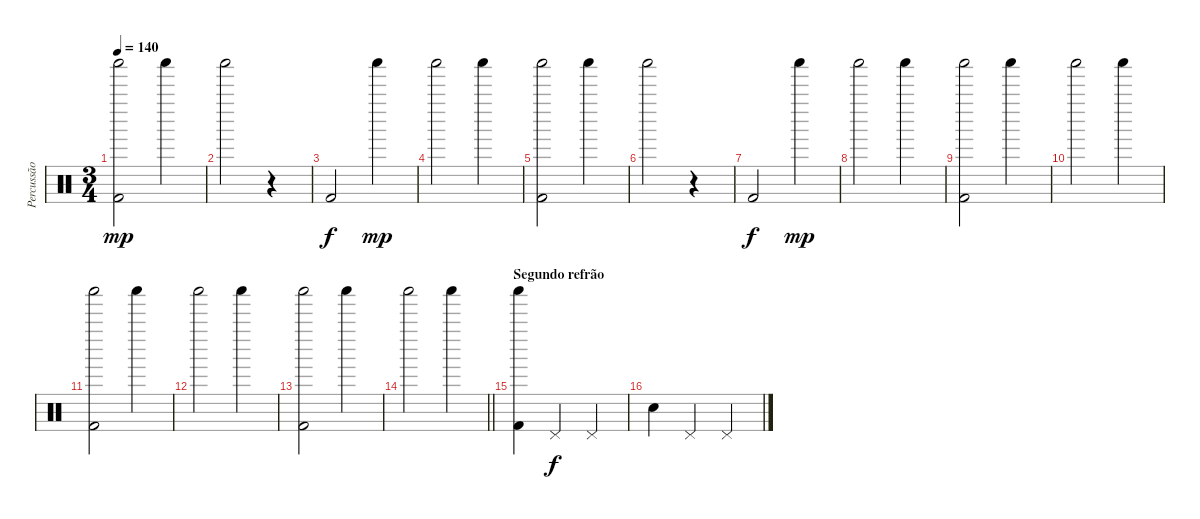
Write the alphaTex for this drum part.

\track ("Percussão" "Percussão") {instrument percussion}
\staff {score}
\articulation defaults
\ts (3 4)
\tempo 140
\clef neutral
\ks c
("Shaker (hit)" "Kick (hit) 2").2{dy mp} "Shaker (hit)".4 |
"Shaker (hit)".2 r.4 |
"Kick (hit) 2".2{dy f} "Shaker (hit)".4{dy mp} |
"Shaker (hit)".2 "Shaker (hit)".4 |
("Shaker (hit)" "Kick (hit) 2").2 "Shaker (hit)".4 |
"Shaker (hit)".2 r.4 |
"Kick (hit) 2".2{dy f} "Shaker (hit)".4{dy mp} |
"Shaker (hit)".2 "Shaker (hit)".4 |
("Shaker (hit)" "Kick (hit) 2").2 "Shaker (hit)".4 |
"Shaker (hit)".2 "Shaker (hit)".4 |
("Shaker (hit)" "Kick (hit) 2").2 "Shaker (hit)".4 |
"Shaker (hit)".2 "Shaker (hit)".4 |
("Shaker (hit)" "Kick (hit) 2").2 "Shaker (hit)".4 |
\barLineRight lightlight "Shaker (hit)".2 "Shaker (hit)".4
|
\section ("" "Segundo refrão")
("Shaker (hit)" "Kick (hit) 2").4 "Pedal Hi-Hat (hit)".4{dy f} "Pedal Hi-Hat (hit)".4 |
"Electric Snare (hit)".4 "Pedal Hi-Hat (hit)".4 "Pedal Hi-Hat (hit)".4
